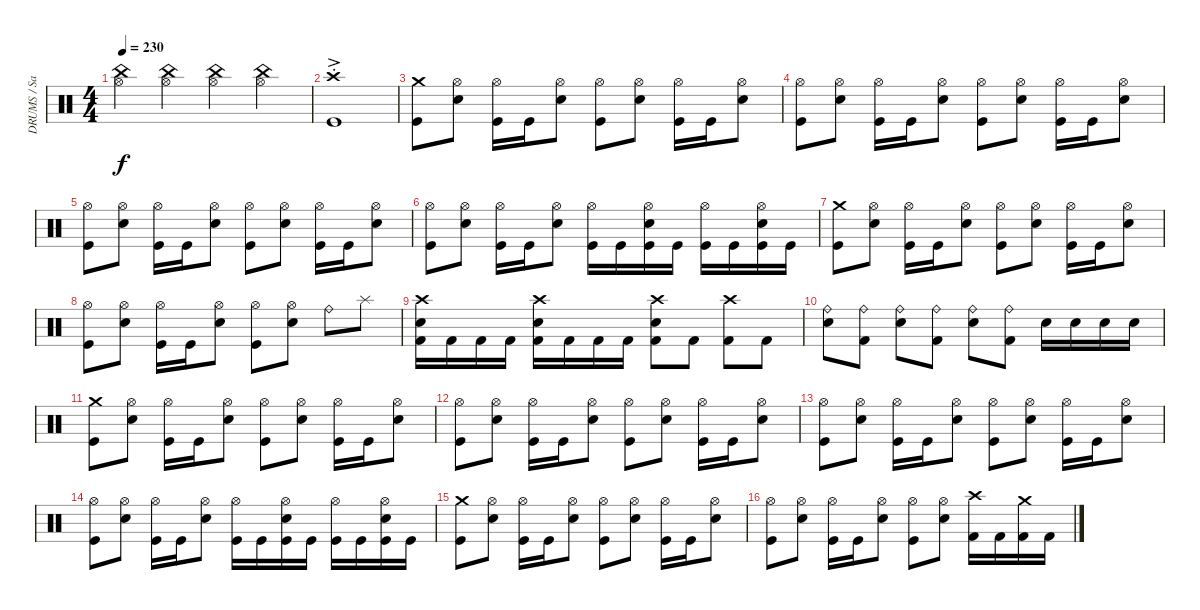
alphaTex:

\track ("DRUMS / Sasha" "DRUMS / Sa") {instrument percussion}
\staff {score}
\articulation defaults
\ts (4 4)
\tempo 230
\clef neutral
\ks c
("China (hit)" "Hi-Hat (open)").4{dy f} ("China (hit)" "Hi-Hat (open)").4 ("China (hit)" "Hi-Hat (open)").4 ("China (hit)" "Hi-Hat (open)").4 |
("Crash high (hit)"{ac st} "Kick (hit)").1 |
("Crash medium (hit)" "Kick (hit)").8 ("Hi-Hat (open)" "Snare (hit) 2").8 ("Kick (hit)" "Hi-Hat (open)").16 "Kick (hit)".16 ("Hi-Hat (open)" "Snare (hit) 2").8 ("Kick (hit)" "Hi-Hat (open)").8 ("Hi-Hat (open)" "Snare (hit) 2").8 ("Kick (hit)" "Hi-Hat (open)").16 "Kick (hit)".16 ("Hi-Hat (open)" "Snare (hit) 2").8 |
("Kick (hit)" "Hi-Hat (open)").8 ("Hi-Hat (open)" "Snare (hit) 2").8 ("Kick (hit)" "Hi-Hat (open)").16 "Kick (hit)".16 ("Hi-Hat (open)" "Snare (hit) 2").8 ("Kick (hit)" "Hi-Hat (open)").8 ("Hi-Hat (open)" "Snare (hit) 2").8 ("Kick (hit)" "Hi-Hat (open)").16 "Kick (hit)".16 ("Hi-Hat (open)" "Snare (hit) 2").8 |
("Kick (hit)" "Hi-Hat (open)").8 ("Hi-Hat (open)" "Snare (hit) 2").8 ("Kick (hit)" "Hi-Hat (open)").16 "Kick (hit)".16 ("Hi-Hat (open)" "Snare (hit) 2").8 ("Kick (hit)" "Hi-Hat (open)").8 ("Hi-Hat (open)" "Snare (hit) 2").8 ("Kick (hit)" "Hi-Hat (open)").16 "Kick (hit)".16 ("Hi-Hat (open)" "Snare (hit) 2").8 |
("Kick (hit)" "Hi-Hat (open)").8 ("Hi-Hat (open)" "Snare (hit) 2").8 ("Kick (hit)" "Hi-Hat (open)").16 "Kick (hit)".16 ("Hi-Hat (open)" "Snare (hit) 2").8 ("Kick (hit)" "Hi-Hat (open)").16 "Kick (hit)".16 ("Snare (hit) 2" "Kick (hit)" "Hi-Hat (open)").16 "Kick (hit)".16 ("Kick (hit)" "Hi-Hat (open)").16 "Kick (hit)".16 ("Kick (hit)" "Snare (hit) 2" "Hi-Hat (open)").16 "Kick (hit)".16 |
("Crash medium (hit)" "Kick (hit)").8 ("Hi-Hat (open)" "Snare (hit) 2").8 ("Kick (hit)" "Hi-Hat (open)").16 "Kick (hit)".16 ("Hi-Hat (open)" "Snare (hit) 2").8 ("Kick (hit)" "Hi-Hat (open)").8 ("Hi-Hat (open)" "Snare (hit) 2").8 ("Kick (hit)" "Hi-Hat (open)").16 "Kick (hit)".16 ("Hi-Hat (open)" "Snare (hit) 2").8 |
("Kick (hit)" "Hi-Hat (open)").8 ("Hi-Hat (open)" "Snare (hit) 2").8 ("Kick (hit)" "Hi-Hat (open)").16 "Kick (hit)".16 ("Hi-Hat (open)" "Snare (hit) 2").8 ("Kick (hit)" "Hi-Hat (open)").8 ("Hi-Hat (open)" "Snare (hit) 2").8 "Ride (bell)".8 "Splash (hit)".8 |
("Crash high (hit)" "Electric Snare (hit)" "Kick (hit) 2").16 "Kick (hit) 2".16 "Kick (hit) 2".16 "Kick (hit) 2".16 ("Crash high (hit)" "Electric Snare (hit)" "Kick (hit) 2").16 "Kick (hit) 2".16 "Kick (hit) 2".16 "Kick (hit) 2".16 ("Crash high (hit)" "Electric Snare (hit)" "Kick (hit) 2").8 "Kick (hit) 2".8 ("Crash high (hit)" "Kick (hit) 2").8 "Kick (hit) 2".8 |
("Ride (bell)" "Electric Snare (hit)").8 ("Ride (bell)" "Kick (hit) 2").8 ("Ride (bell)" "Electric Snare (hit)").8 ("Ride (bell)" "Kick (hit) 2").8 ("Ride (bell)" "Electric Snare (hit)").8 ("Ride (bell)" "Kick (hit) 2").8 "Electric Snare (hit)".16 "Electric Snare (hit)".16 "Electric Snare (hit)".16 "Electric Snare (hit)".16 |
("Crash medium (hit)" "Kick (hit)").8 ("Hi-Hat (open)" "Snare (hit) 2").8 ("Kick (hit)" "Hi-Hat (open)").16 "Kick (hit)".16 ("Hi-Hat (open)" "Snare (hit) 2").8 ("Kick (hit)" "Hi-Hat (open)").8 ("Hi-Hat (open)" "Snare (hit) 2").8 ("Kick (hit)" "Hi-Hat (open)").16 "Kick (hit)".16 ("Hi-Hat (open)" "Snare (hit) 2").8 |
("Kick (hit)" "Hi-Hat (open)").8 ("Hi-Hat (open)" "Snare (hit) 2").8 ("Kick (hit)" "Hi-Hat (open)").16 "Kick (hit)".16 ("Hi-Hat (open)" "Snare (hit) 2").8 ("Kick (hit)" "Hi-Hat (open)").8 ("Hi-Hat (open)" "Snare (hit) 2").8 ("Kick (hit)" "Hi-Hat (open)").16 "Kick (hit)".16 ("Hi-Hat (open)" "Snare (hit) 2").8 |
("Kick (hit)" "Hi-Hat (open)").8 ("Hi-Hat (open)" "Snare (hit) 2").8 ("Kick (hit)" "Hi-Hat (open)").16 "Kick (hit)".16 ("Hi-Hat (open)" "Snare (hit) 2").8 ("Kick (hit)" "Hi-Hat (open)").8 ("Hi-Hat (open)" "Snare (hit) 2").8 ("Kick (hit)" "Hi-Hat (open)").16 "Kick (hit)".16 ("Hi-Hat (open)" "Snare (hit) 2").8 |
("Kick (hit)" "Hi-Hat (open)").8 ("Hi-Hat (open)" "Snare (hit) 2").8 ("Kick (hit)" "Hi-Hat (open)").16 "Kick (hit)".16 ("Hi-Hat (open)" "Snare (hit) 2").8 ("Kick (hit)" "Hi-Hat (open)").16 "Kick (hit)".16 ("Snare (hit) 2" "Kick (hit)" "Hi-Hat (open)").16 "Kick (hit)".16 ("Kick (hit)" "Hi-Hat (open)").16 "Kick (hit)".16 ("Kick (hit)" "Snare (hit) 2" "Hi-Hat (open)").16 "Kick (hit)".16 |
("Crash medium (hit)" "Kick (hit)").8 ("Hi-Hat (open)" "Snare (hit) 2").8 ("Kick (hit)" "Hi-Hat (open)").16 "Kick (hit)".16 ("Hi-Hat (open)" "Snare (hit) 2").8 ("Kick (hit)" "Hi-Hat (open)").8 ("Hi-Hat (open)" "Snare (hit) 2").8 ("Kick (hit)" "Hi-Hat (open)").16 "Kick (hit)".16 ("Hi-Hat (open)" "Snare (hit) 2").8 |
("Kick (hit)" "Hi-Hat (open)").8 ("Hi-Hat (open)" "Snare (hit) 2").8 ("Kick (hit)" "Hi-Hat (open)").16 "Kick (hit)".16 ("Hi-Hat (open)" "Snare (hit) 2").8 ("Kick (hit)" "Hi-Hat (open)").8 ("Hi-Hat (open)" "Snare (hit) 2").8 ("Crash high (hit)" "Kick (hit) 2").16 "Kick (hit) 2".16 ("Crash medium (hit)" "Kick (hit) 2").16 "Kick (hit) 2".16
